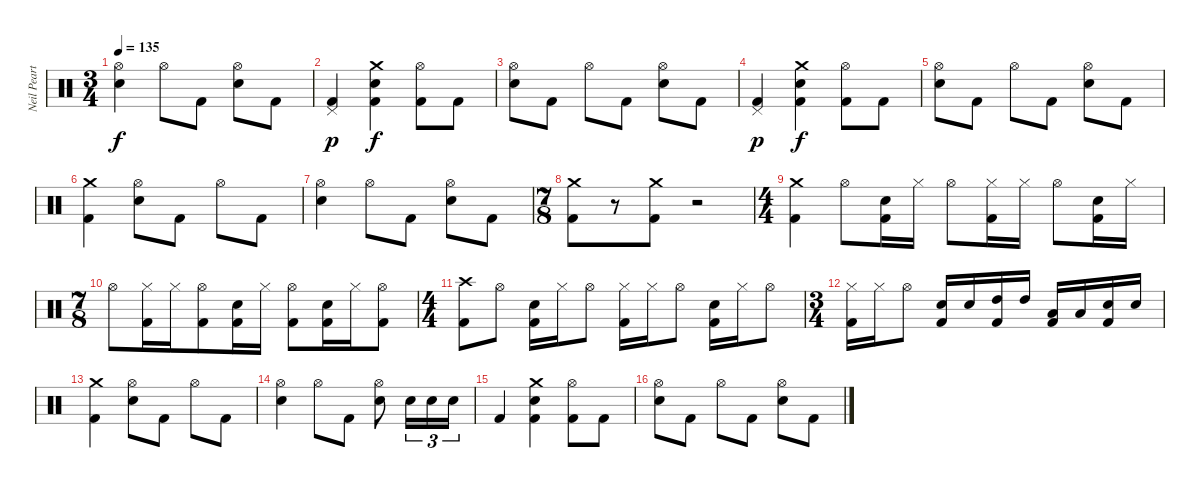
\track ("Neil Peart" "Neil Peart") {instrument percussion}
\staff {score}
\articulation defaults
\ts (3 4)
\tempo 135
\clef neutral
\ks c
("Hi-Hat (open)" "Snare (hit) 2").4{dy f} "Hi-Hat (open)".8 "Kick (hit) 2".8 ("Hi-Hat (open)" "Snare (hit) 2").8 "Kick (hit) 2".8 |
("Kick (hit) 2" "Pedal Hi-Hat (hit)").4{dy p} ("Crash medium (hit)" "Snare (hit) 2" "Kick (hit) 2").4{dy f} ("Hi-Hat (open)" "Kick (hit) 2").8 "Kick (hit) 2".8 |
("Hi-Hat (open)" "Snare (hit) 2").8 "Kick (hit) 2".8 "Hi-Hat (open)".8 "Kick (hit) 2".8 ("Hi-Hat (open)" "Snare (hit) 2").8 "Kick (hit) 2".8 |
("Kick (hit) 2" "Pedal Hi-Hat (hit)").4{dy p} ("Crash medium (hit)" "Snare (hit) 2" "Kick (hit) 2").4{dy f} ("Hi-Hat (open)" "Kick (hit) 2").8 "Kick (hit) 2".8 |
("Hi-Hat (open)" "Snare (hit) 2").8 "Kick (hit) 2".8 "Hi-Hat (open)".8 "Kick (hit) 2".8 ("Hi-Hat (open)" "Snare (hit) 2").8 "Kick (hit) 2".8 |
("Crash medium (hit)" "Kick (hit) 2").4 ("Hi-Hat (open)" "Snare (hit) 2").8 "Kick (hit) 2".8 "Hi-Hat (open)".8 "Kick (hit) 2".8 |
("Hi-Hat (open)" "Snare (hit) 2").4 "Hi-Hat (open)".8 "Kick (hit) 2".8 ("Hi-Hat (open)" "Snare (hit) 2").8 "Kick (hit) 2".8 |
\ts (7 8)
("Crash medium (hit)" "Kick (hit) 2").8 r.8{volume 0} ("Crash medium (hit)" "Kick (hit) 2").8{volume 14} r.2{volume 0} |
\ts (4 4)
("Crash medium (hit)" "Kick (hit) 2").4{volume 14} "Hi-Hat (open)".8 ("Snare (hit) 2" "Kick (hit) 2").16 "Hi-Hat (closed)".16 "Hi-Hat (open)".8 ("Hi-Hat (closed)" "Kick (hit) 2").16 "Hi-Hat (closed)".16 "Hi-Hat (open)".8 ("Snare (hit) 2" "Kick (hit) 2").16 "Hi-Hat (closed)".16 |
\ts (7 8)
"Hi-Hat (open)".8 ("Hi-Hat (closed)" "Kick (hit) 2").16 "Hi-Hat (closed)".16 ("Hi-Hat (open)" "Kick (hit) 2").8 ("Snare (hit) 2" "Kick (hit) 2").16 "Hi-Hat (closed)".16 ("Hi-Hat (open)" "Kick (hit) 2").8 ("Snare (hit) 2" "Kick (hit) 2").16 "Hi-Hat (closed)".16 ("Hi-Hat (open)" "Kick (hit) 2").8 |
\ts (4 4)
("Crash high (hit)" "Kick (hit) 2").8 "Hi-Hat (open)".8 ("Snare (hit) 2" "Kick (hit) 2").16 "Hi-Hat (closed)".16 "Hi-Hat (open)".8 ("Hi-Hat (closed)" "Kick (hit) 2").16 "Hi-Hat (closed)".16 "Hi-Hat (open)".8 ("Snare (hit) 2" "Kick (hit) 2").16 "Hi-Hat (closed)".16 "Hi-Hat (open)".8 |
\ts (3 4)
("Hi-Hat (closed)" "Kick (hit) 2").16 "Hi-Hat (closed)".16 "Hi-Hat (open)".8 ("Snare (hit) 2" "Kick (hit) 2").16 "Snare (hit) 2".16 ("High Tom (hit)" "Kick (hit) 2").16 "High Tom (hit)".16 ("Low Tom (hit)" "Kick (hit) 2").16 "Low Tom (hit)".16 ("Snare (hit) 2" "Kick (hit) 2").16 "Snare (hit) 2".16 |
("Crash medium (hit)" "Kick (hit) 2").4 ("Hi-Hat (open)" "Snare (hit) 2").8 "Kick (hit) 2".8 "Hi-Hat (open)".8 "Kick (hit) 2".8 |
("Hi-Hat (open)" "Snare (hit) 2").4 "Hi-Hat (open)".8 "Kick (hit) 2".8 ("Hi-Hat (open)" "Snare (hit) 2").8 "Snare (hit) 2".16{tu (3 2)} "Snare (hit) 2".16{tu (3 2)} "Snare (hit) 2".16{tu (3 2)} |
"Kick (hit) 2".4 ("Crash medium (hit)" "Snare (hit) 2" "Kick (hit) 2").4 ("Hi-Hat (open)" "Kick (hit) 2").8 "Kick (hit) 2".8 |
("Hi-Hat (open)" "Snare (hit) 2").8 "Kick (hit) 2".8 "Hi-Hat (open)".8 "Kick (hit) 2".8 ("Hi-Hat (open)" "Snare (hit) 2").8 "Kick (hit) 2".8
